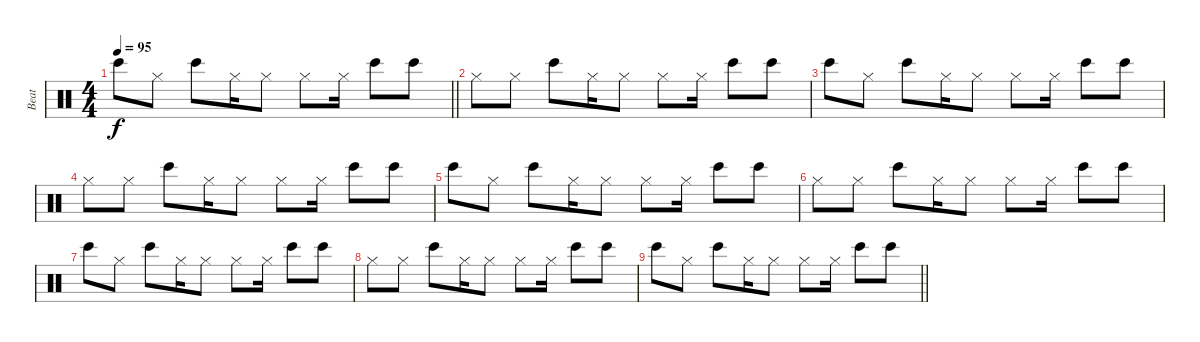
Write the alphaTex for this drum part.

\track ("Beat" "Beat") {instrument percussion}
\staff {score}
\articulation defaults
\ts (4 4)
\tempo 95
\clef neutral
\barLineRight lightlight
\ks c "Bongo High (hit)".8{dy f} "Hi-Hat (closed)".8 "Bongo High (hit)".8 "Hi-Hat (closed)".16 "Hi-Hat (closed)".8 "Hi-Hat (closed)".8 "Hi-Hat (closed)".16 "Bongo High (hit)".8 "Bongo High (hit)".8
|
"Hi-Hat (closed)".8 "Hi-Hat (closed)".8 "Bongo High (hit)".8 "Hi-Hat (closed)".16 "Hi-Hat (closed)".8 "Hi-Hat (closed)".8 "Hi-Hat (closed)".16 "Bongo High (hit)".8 "Bongo High (hit)".8 |
"Bongo High (hit)".8 "Hi-Hat (closed)".8 "Bongo High (hit)".8 "Hi-Hat (closed)".16 "Hi-Hat (closed)".8 "Hi-Hat (closed)".8 "Hi-Hat (closed)".16 "Bongo High (hit)".8 "Bongo High (hit)".8 |
"Hi-Hat (closed)".8 "Hi-Hat (closed)".8 "Bongo High (hit)".8 "Hi-Hat (closed)".16 "Hi-Hat (closed)".8 "Hi-Hat (closed)".8 "Hi-Hat (closed)".16 "Bongo High (hit)".8 "Bongo High (hit)".8 |
"Bongo High (hit)".8 "Hi-Hat (closed)".8 "Bongo High (hit)".8 "Hi-Hat (closed)".16 "Hi-Hat (closed)".8 "Hi-Hat (closed)".8 "Hi-Hat (closed)".16 "Bongo High (hit)".8 "Bongo High (hit)".8 |
"Hi-Hat (closed)".8 "Hi-Hat (closed)".8 "Bongo High (hit)".8 "Hi-Hat (closed)".16 "Hi-Hat (closed)".8 "Hi-Hat (closed)".8 "Hi-Hat (closed)".16 "Bongo High (hit)".8 "Bongo High (hit)".8 |
"Bongo High (hit)".8 "Hi-Hat (closed)".8 "Bongo High (hit)".8 "Hi-Hat (closed)".16 "Hi-Hat (closed)".8 "Hi-Hat (closed)".8 "Hi-Hat (closed)".16 "Bongo High (hit)".8 "Bongo High (hit)".8 |
"Hi-Hat (closed)".8 "Hi-Hat (closed)".8 "Bongo High (hit)".8 "Hi-Hat (closed)".16 "Hi-Hat (closed)".8 "Hi-Hat (closed)".8 "Hi-Hat (closed)".16 "Bongo High (hit)".8 "Bongo High (hit)".8 |
\barLineRight lightlight "Bongo High (hit)".8 "Hi-Hat (closed)".8 "Bongo High (hit)".8 "Hi-Hat (closed)".16 "Hi-Hat (closed)".8 "Hi-Hat (closed)".8 "Hi-Hat (closed)".16 "Bongo High (hit)".8 "Bongo High (hit)".8
